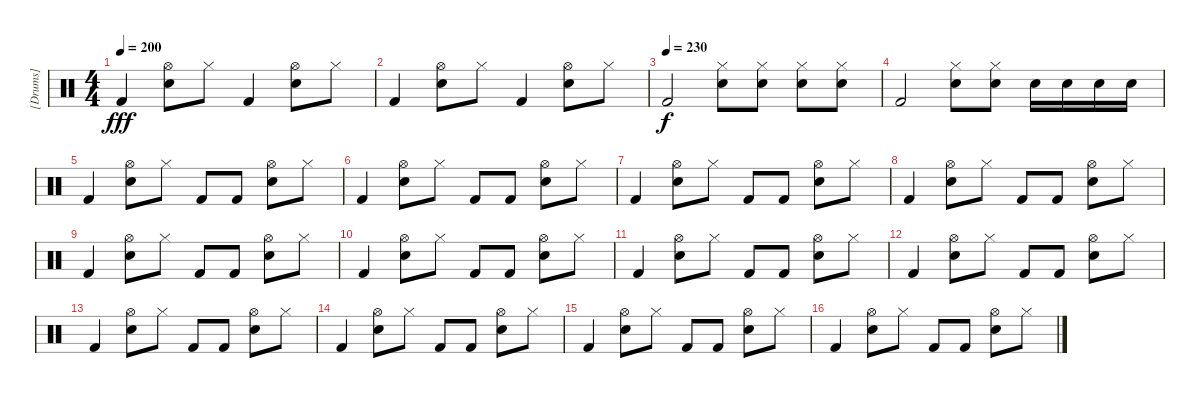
\track ("[Drums]" "[Drums]") {instrument percussion}
\staff {score}
\articulation defaults
\ts (4 4)
\tempo 200
\clef neutral
\ks c "Kick (hit) 2".4{dy fff}
("Hi-Hat (open)" "Electric Snare (hit)").8 "Hi-Hat (closed)".8 "Kick (hit) 2".4 ("Hi-Hat (open)" "Electric Snare (hit)").8 "Hi-Hat (closed)".8 |
"Kick (hit) 2".4 ("Hi-Hat (open)" "Electric Snare (hit)").8 "Hi-Hat (closed)".8 "Kick (hit) 2".4 ("Hi-Hat (open)" "Electric Snare (hit)").8 "Hi-Hat (closed)".8 |
\tempo (230)
"Kick (hit) 2".2{dy f} ("Hi-Hat (closed)" "Electric Snare (hit)").8 ("Hi-Hat (closed)" "Electric Snare (hit)").8 ("Hi-Hat (closed)" "Electric Snare (hit)").8 ("Hi-Hat (closed)" "Electric Snare (hit)").8 |
"Kick (hit) 2".2 ("Hi-Hat (closed)" "Electric Snare (hit)").8 ("Hi-Hat (closed)" "Electric Snare (hit)").8 "Electric Snare (hit)".16 "Electric Snare (hit)".16 "Electric Snare (hit)".16 "Electric Snare (hit)".16 |
"Kick (hit) 2".4 ("Hi-Hat (open)" "Electric Snare (hit)").8 "Hi-Hat (closed)".8 "Kick (hit) 2".8 "Kick (hit) 2".8 ("Hi-Hat (open)" "Electric Snare (hit)").8 "Hi-Hat (closed)".8 |
"Kick (hit) 2".4 ("Hi-Hat (open)" "Electric Snare (hit)").8 "Hi-Hat (closed)".8 "Kick (hit) 2".8 "Kick (hit) 2".8 ("Hi-Hat (open)" "Electric Snare (hit)").8 "Hi-Hat (closed)".8 |
"Kick (hit) 2".4 ("Hi-Hat (open)" "Electric Snare (hit)").8 "Hi-Hat (closed)".8 "Kick (hit) 2".8 "Kick (hit) 2".8 ("Hi-Hat (open)" "Electric Snare (hit)").8 "Hi-Hat (closed)".8 |
"Kick (hit) 2".4 ("Hi-Hat (open)" "Electric Snare (hit)").8 "Hi-Hat (closed)".8 "Kick (hit) 2".8 "Kick (hit) 2".8 ("Hi-Hat (open)" "Electric Snare (hit)").8 "Hi-Hat (closed)".8 |
"Kick (hit) 2".4 ("Hi-Hat (open)" "Electric Snare (hit)").8 "Hi-Hat (closed)".8 "Kick (hit) 2".8 "Kick (hit) 2".8 ("Hi-Hat (open)" "Electric Snare (hit)").8 "Hi-Hat (closed)".8 |
"Kick (hit) 2".4 ("Hi-Hat (open)" "Electric Snare (hit)").8 "Hi-Hat (closed)".8 "Kick (hit) 2".8 "Kick (hit) 2".8 ("Hi-Hat (open)" "Electric Snare (hit)").8 "Hi-Hat (closed)".8 |
"Kick (hit) 2".4 ("Hi-Hat (open)" "Electric Snare (hit)").8 "Hi-Hat (closed)".8 "Kick (hit) 2".8 "Kick (hit) 2".8 ("Hi-Hat (open)" "Electric Snare (hit)").8 "Hi-Hat (closed)".8 |
"Kick (hit) 2".4 ("Hi-Hat (open)" "Electric Snare (hit)").8 "Hi-Hat (closed)".8 "Kick (hit) 2".8 "Kick (hit) 2".8 ("Hi-Hat (open)" "Electric Snare (hit)").8 "Hi-Hat (closed)".8 |
"Kick (hit) 2".4 ("Hi-Hat (open)" "Electric Snare (hit)").8 "Hi-Hat (closed)".8 "Kick (hit) 2".8 "Kick (hit) 2".8 ("Hi-Hat (open)" "Electric Snare (hit)").8 "Hi-Hat (closed)".8 |
"Kick (hit) 2".4 ("Hi-Hat (open)" "Electric Snare (hit)").8 "Hi-Hat (closed)".8 "Kick (hit) 2".8 "Kick (hit) 2".8 ("Hi-Hat (open)" "Electric Snare (hit)").8 "Hi-Hat (closed)".8 |
"Kick (hit) 2".4 ("Hi-Hat (open)" "Electric Snare (hit)").8 "Hi-Hat (closed)".8 "Kick (hit) 2".8 "Kick (hit) 2".8 ("Hi-Hat (open)" "Electric Snare (hit)").8 "Hi-Hat (closed)".8 |
"Kick (hit) 2".4 ("Hi-Hat (open)" "Electric Snare (hit)").8 "Hi-Hat (closed)".8 "Kick (hit) 2".8 "Kick (hit) 2".8 ("Hi-Hat (open)" "Electric Snare (hit)").8 "Hi-Hat (closed)".8
